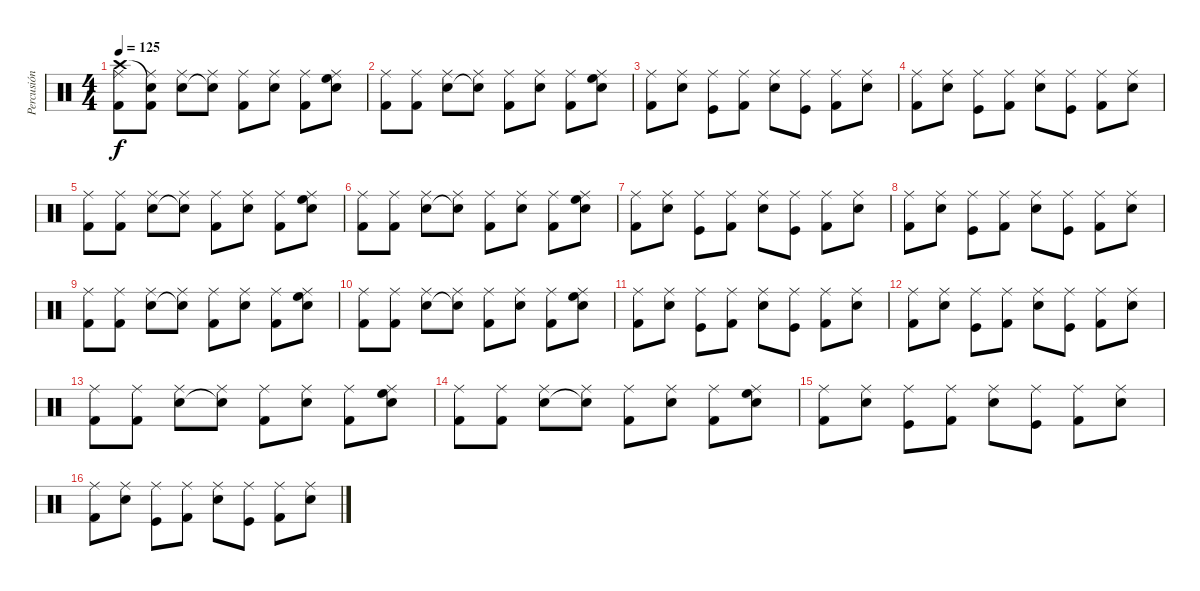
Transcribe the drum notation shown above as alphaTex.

\track ("Percusión" "Percusión") {instrument percussion}
\staff {score}
\articulation defaults
\ts (4 4)
\tempo 125
\clef neutral
\ks c
("Crash high (hit)" "Ride (middle)" "Kick (hit) 2").8{dy f} ("Snare (hit)"{t} "Ride (middle)" "Kick (hit) 2").8 ("Ride (middle)" "Snare (hit) 2").8 ("Ride (middle)" "Snare (hit) 2"{t}).8 ("Ride (middle)" "Kick (hit) 2").8 ("Ride (middle)" "Snare (hit) 2").8 ("Ride (middle)" "Kick (hit) 2").8 ("Ride (middle)" "High Floor Tom (hit)" "Snare (hit) 2").8 |
("Ride (middle)" "Kick (hit) 2").8 ("Ride (middle)" "Kick (hit) 2").8 ("Ride (middle)" "Snare (hit) 2").8 ("Ride (middle)" "Snare (hit) 2"{t}).8 ("Ride (middle)" "Kick (hit) 2").8 ("Ride (middle)" "Snare (hit) 2").8 ("Ride (middle)" "Kick (hit) 2").8 ("Ride (middle)" "High Floor Tom (hit)" "Snare (hit) 2").8 |
("Ride (middle)" "Kick (hit) 2").8 ("Ride (middle)" "Snare (hit) 2").8 ("Ride (middle)" "Kick (hit)").8 ("Ride (middle)" "Kick (hit) 2").8 ("Ride (middle)" "Snare (hit) 2").8 ("Ride (middle)" "Kick (hit)").8 ("Ride (middle)" "Kick (hit) 2").8 ("Ride (middle)" "Snare (hit) 2").8 |
("Ride (middle)" "Kick (hit) 2").8 ("Ride (middle)" "Snare (hit) 2").8 ("Ride (middle)" "Kick (hit)").8 ("Ride (middle)" "Kick (hit) 2").8 ("Ride (middle)" "Snare (hit) 2").8 ("Ride (middle)" "Kick (hit)").8 ("Ride (middle)" "Kick (hit) 2").8 ("Ride (middle)" "Snare (hit) 2").8 |
("Ride (middle)" "Kick (hit) 2").8 ("Ride (middle)" "Kick (hit) 2").8 ("Ride (middle)" "Snare (hit) 2").8 ("Ride (middle)" "Snare (hit) 2"{t}).8 ("Ride (middle)" "Kick (hit) 2").8 ("Ride (middle)" "Snare (hit) 2").8 ("Ride (middle)" "Kick (hit) 2").8 ("Ride (middle)" "High Floor Tom (hit)" "Snare (hit) 2").8 |
("Ride (middle)" "Kick (hit) 2").8 ("Ride (middle)" "Kick (hit) 2").8 ("Ride (middle)" "Snare (hit) 2").8 ("Ride (middle)" "Snare (hit) 2"{t}).8 ("Ride (middle)" "Kick (hit) 2").8 ("Ride (middle)" "Snare (hit) 2").8 ("Ride (middle)" "Kick (hit) 2").8 ("Ride (middle)" "High Floor Tom (hit)" "Snare (hit) 2").8 |
("Ride (middle)" "Kick (hit) 2").8 ("Ride (middle)" "Snare (hit) 2").8 ("Ride (middle)" "Kick (hit)").8 ("Ride (middle)" "Kick (hit) 2").8 ("Ride (middle)" "Snare (hit) 2").8 ("Ride (middle)" "Kick (hit)").8 ("Ride (middle)" "Kick (hit) 2").8 ("Ride (middle)" "Snare (hit) 2").8 |
("Ride (middle)" "Kick (hit) 2").8 ("Ride (middle)" "Snare (hit) 2").8 ("Ride (middle)" "Kick (hit)").8 ("Ride (middle)" "Kick (hit) 2").8 ("Ride (middle)" "Snare (hit) 2").8 ("Ride (middle)" "Kick (hit)").8 ("Ride (middle)" "Kick (hit) 2").8 ("Ride (middle)" "Snare (hit) 2").8 |
("Ride (middle)" "Kick (hit) 2").8 ("Ride (middle)" "Kick (hit) 2").8 ("Ride (middle)" "Snare (hit) 2").8 ("Ride (middle)" "Snare (hit) 2"{t}).8 ("Ride (middle)" "Kick (hit) 2").8 ("Ride (middle)" "Snare (hit) 2").8 ("Ride (middle)" "Kick (hit) 2").8 ("Ride (middle)" "High Floor Tom (hit)" "Snare (hit) 2").8 |
("Ride (middle)" "Kick (hit) 2").8 ("Ride (middle)" "Kick (hit) 2").8 ("Ride (middle)" "Snare (hit) 2").8 ("Ride (middle)" "Snare (hit) 2"{t}).8 ("Ride (middle)" "Kick (hit) 2").8 ("Ride (middle)" "Snare (hit) 2").8 ("Ride (middle)" "Kick (hit) 2").8 ("Ride (middle)" "High Floor Tom (hit)" "Snare (hit) 2").8 |
("Ride (middle)" "Kick (hit) 2").8 ("Ride (middle)" "Snare (hit) 2").8 ("Ride (middle)" "Kick (hit)").8 ("Ride (middle)" "Kick (hit) 2").8 ("Ride (middle)" "Snare (hit) 2").8 ("Ride (middle)" "Kick (hit)").8 ("Ride (middle)" "Kick (hit) 2").8 ("Ride (middle)" "Snare (hit) 2").8 |
("Ride (middle)" "Kick (hit) 2").8 ("Ride (middle)" "Snare (hit) 2").8 ("Ride (middle)" "Kick (hit)").8 ("Ride (middle)" "Kick (hit) 2").8 ("Ride (middle)" "Snare (hit) 2").8 ("Ride (middle)" "Kick (hit)").8 ("Ride (middle)" "Kick (hit) 2").8 ("Ride (middle)" "Snare (hit) 2").8 |
("Ride (middle)" "Kick (hit) 2").8 ("Ride (middle)" "Kick (hit) 2").8 ("Ride (middle)" "Snare (hit) 2").8 ("Ride (middle)" "Snare (hit) 2"{t}).8 ("Ride (middle)" "Kick (hit) 2").8 ("Ride (middle)" "Snare (hit) 2").8 ("Ride (middle)" "Kick (hit) 2").8 ("Ride (middle)" "High Floor Tom (hit)" "Snare (hit) 2").8 |
("Ride (middle)" "Kick (hit) 2").8 ("Ride (middle)" "Kick (hit) 2").8 ("Ride (middle)" "Snare (hit) 2").8 ("Ride (middle)" "Snare (hit) 2"{t}).8 ("Ride (middle)" "Kick (hit) 2").8 ("Ride (middle)" "Snare (hit) 2").8 ("Ride (middle)" "Kick (hit) 2").8 ("Ride (middle)" "High Floor Tom (hit)" "Snare (hit) 2").8 |
("Ride (middle)" "Kick (hit) 2").8 ("Ride (middle)" "Snare (hit) 2").8 ("Ride (middle)" "Kick (hit)").8 ("Ride (middle)" "Kick (hit) 2").8 ("Ride (middle)" "Snare (hit) 2").8 ("Ride (middle)" "Kick (hit)").8 ("Ride (middle)" "Kick (hit) 2").8 ("Ride (middle)" "Snare (hit) 2").8 |
("Ride (middle)" "Kick (hit) 2").8 ("Ride (middle)" "Snare (hit) 2").8 ("Ride (middle)" "Kick (hit)").8 ("Ride (middle)" "Kick (hit) 2").8 ("Ride (middle)" "Snare (hit) 2").8 ("Ride (middle)" "Kick (hit)").8 ("Ride (middle)" "Kick (hit) 2").8 ("Ride (middle)" "Snare (hit) 2").8
